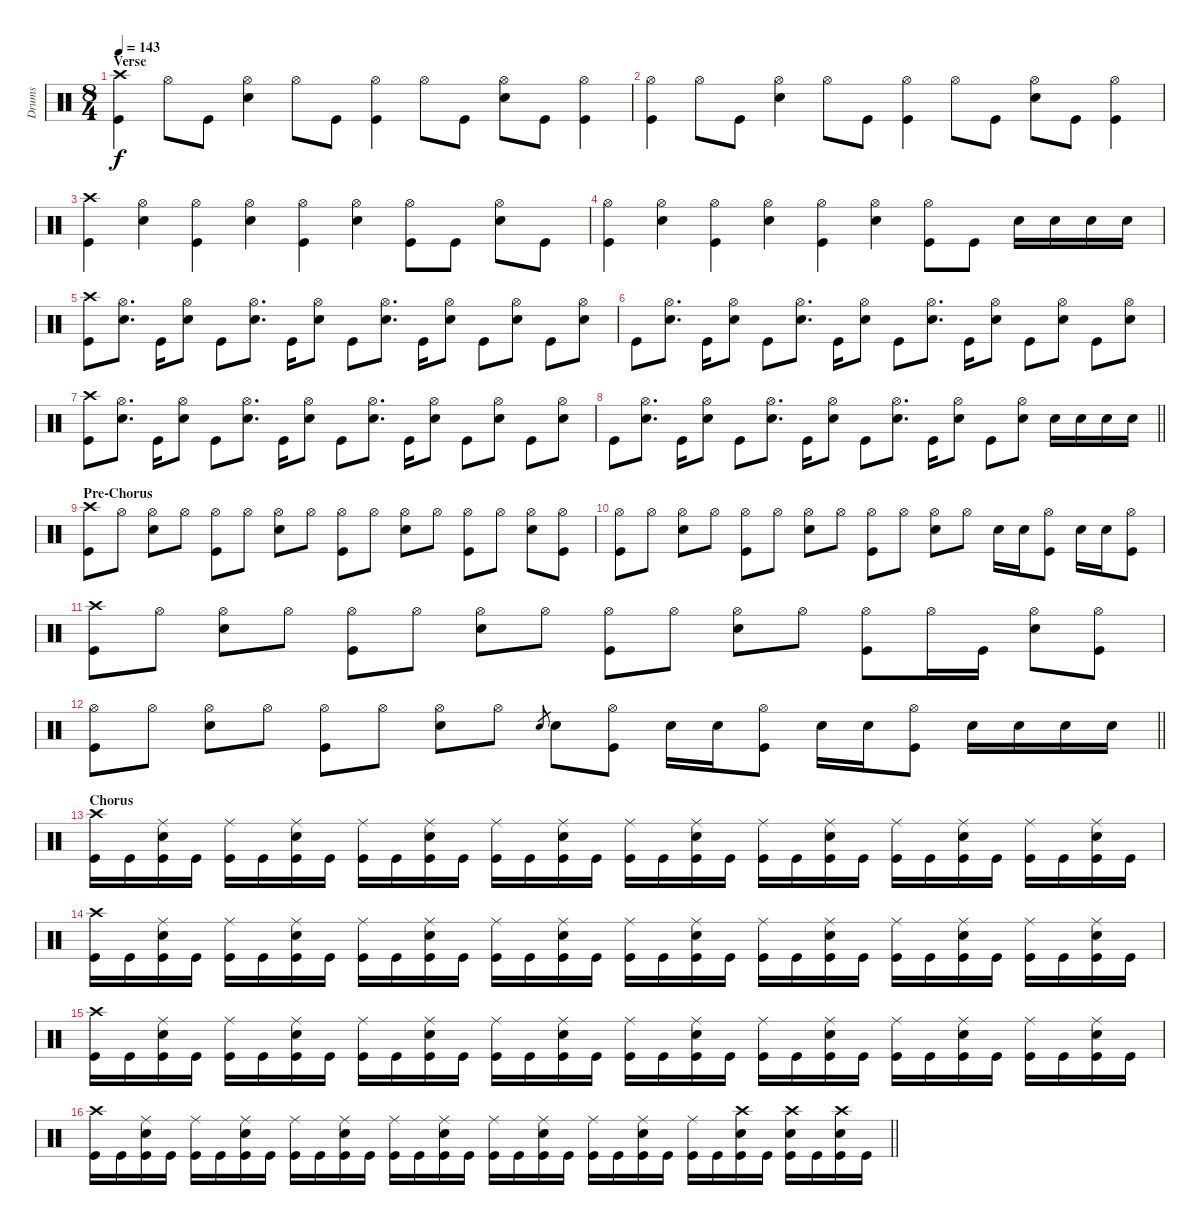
\track ("Drums" "Drums") {instrument percussion}
\staff {score}
\articulation defaults
\ts (8 4)
\section ("" "Verse")
\tempo 143
\clef neutral
\ks c
("Crash high (hit)" "Kick (hit)").4{dy f} "Hi-Hat (open)".8 "Kick (hit)".8 ("Hi-Hat (open)" "Snare (hit) 2").4 "Hi-Hat (open)".8 "Kick (hit)".8 ("Hi-Hat (open)" "Kick (hit)").4 "Hi-Hat (open)".8 "Kick (hit)".8 ("Hi-Hat (open)" "Snare (hit) 2").8 "Kick (hit)".8 ("Hi-Hat (open)" "Kick (hit)").4 |
("Hi-Hat (open)" "Kick (hit)").4 "Hi-Hat (open)".8 "Kick (hit)".8 ("Hi-Hat (open)" "Snare (hit) 2").4 "Hi-Hat (open)".8 "Kick (hit)".8 ("Hi-Hat (open)" "Kick (hit)").4 "Hi-Hat (open)".8 "Kick (hit)".8 ("Hi-Hat (open)" "Snare (hit) 2").8 "Kick (hit)".8 ("Hi-Hat (open)" "Kick (hit)").4 |
("Crash high (hit)" "Kick (hit)").4 ("Hi-Hat (open)" "Snare (hit) 2").4 ("Hi-Hat (open)" "Kick (hit)").4 ("Hi-Hat (open)" "Snare (hit) 2").4 ("Hi-Hat (open)" "Kick (hit)").4 ("Hi-Hat (open)" "Snare (hit) 2").4 ("Hi-Hat (open)" "Kick (hit)").8 "Kick (hit)".8 ("Hi-Hat (open)" "Snare (hit) 2").8 "Kick (hit)".8 |
("Hi-Hat (open)" "Kick (hit)").4 ("Hi-Hat (open)" "Snare (hit) 2").4 ("Hi-Hat (open)" "Kick (hit)").4 ("Hi-Hat (open)" "Snare (hit) 2").4 ("Hi-Hat (open)" "Kick (hit)").4 ("Hi-Hat (open)" "Snare (hit) 2").4 ("Hi-Hat (open)" "Kick (hit)").8 "Kick (hit)".8 "Snare (hit) 2".16 "Snare (hit) 2".16 "Snare (hit) 2".16 "Snare (hit) 2".16 |
("Crash high (hit)" "Kick (hit)").8 ("Hi-Hat (open)" "Snare (hit) 2").8{d} "Kick (hit)".16 ("Hi-Hat (open)" "Snare (hit) 2").8 "Kick (hit)".8 ("Hi-Hat (open)" "Snare (hit) 2").8{d} "Kick (hit)".16 ("Hi-Hat (open)" "Snare (hit) 2").8 "Kick (hit)".8 ("Hi-Hat (open)" "Snare (hit) 2").8{d} "Kick (hit)".16 ("Hi-Hat (open)" "Snare (hit) 2").8 "Kick (hit)".8 ("Hi-Hat (open)" "Snare (hit) 2").8 "Kick (hit)".8 ("Hi-Hat (open)" "Snare (hit) 2").8 |
"Kick (hit)".8 ("Hi-Hat (open)" "Snare (hit) 2").8{d} "Kick (hit)".16 ("Hi-Hat (open)" "Snare (hit) 2").8 "Kick (hit)".8 ("Hi-Hat (open)" "Snare (hit) 2").8{d} "Kick (hit)".16 ("Hi-Hat (open)" "Snare (hit) 2").8 "Kick (hit)".8 ("Hi-Hat (open)" "Snare (hit) 2").8{d} "Kick (hit)".16 ("Hi-Hat (open)" "Snare (hit) 2").8 "Kick (hit)".8 ("Hi-Hat (open)" "Snare (hit) 2").8 "Kick (hit)".8 ("Hi-Hat (open)" "Snare (hit) 2").8 |
("Crash high (hit)" "Kick (hit)").8 ("Hi-Hat (open)" "Snare (hit) 2").8{d} "Kick (hit)".16 ("Hi-Hat (open)" "Snare (hit) 2").8 "Kick (hit)".8 ("Hi-Hat (open)" "Snare (hit) 2").8{d} "Kick (hit)".16 ("Hi-Hat (open)" "Snare (hit) 2").8 "Kick (hit)".8 ("Hi-Hat (open)" "Snare (hit) 2").8{d} "Kick (hit)".16 ("Hi-Hat (open)" "Snare (hit) 2").8 "Kick (hit)".8 ("Hi-Hat (open)" "Snare (hit) 2").8 "Kick (hit)".8 ("Hi-Hat (open)" "Snare (hit) 2").8 |
\barLineRight lightlight "Kick (hit)".8
("Hi-Hat (open)" "Snare (hit) 2").8{d} "Kick (hit)".16 ("Hi-Hat (open)" "Snare (hit) 2").8 "Kick (hit)".8 ("Hi-Hat (open)" "Snare (hit) 2").8{d} "Kick (hit)".16 ("Hi-Hat (open)" "Snare (hit) 2").8 "Kick (hit)".8 ("Hi-Hat (open)" "Snare (hit) 2").8{d} "Kick (hit)".16 ("Hi-Hat (open)" "Snare (hit) 2").8 "Kick (hit)".8 ("Hi-Hat (open)" "Snare (hit) 2").8 "Snare (hit) 2".16 "Snare (hit) 2".16 "Snare (hit) 2".16 "Snare (hit) 2".16 |
\section ("" "Pre-Chorus")
("Crash high (hit)" "Kick (hit)").8 "Hi-Hat (open)".8 ("Hi-Hat (open)" "Snare (hit) 2").8 "Hi-Hat (open)".8 ("Hi-Hat (open)" "Kick (hit)").8 "Hi-Hat (open)".8 ("Hi-Hat (open)" "Snare (hit) 2").8 "Hi-Hat (open)".8 ("Hi-Hat (open)" "Kick (hit)").8 "Hi-Hat (open)".8 ("Hi-Hat (open)" "Snare (hit) 2").8 "Hi-Hat (open)".8 ("Hi-Hat (open)" "Kick (hit)").8 "Hi-Hat (open)".8 ("Hi-Hat (open)" "Snare (hit) 2").8 ("Hi-Hat (open)" "Kick (hit)").8 |
("Hi-Hat (open)" "Kick (hit)").8 "Hi-Hat (open)".8 ("Hi-Hat (open)" "Snare (hit) 2").8 "Hi-Hat (open)".8 ("Hi-Hat (open)" "Kick (hit)").8 "Hi-Hat (open)".8 ("Hi-Hat (open)" "Snare (hit) 2").8 "Hi-Hat (open)".8 ("Hi-Hat (open)" "Kick (hit)").8 "Hi-Hat (open)".8 ("Hi-Hat (open)" "Snare (hit) 2").8 "Hi-Hat (open)".8 "Snare (hit) 2".16 "Snare (hit) 2".16 ("Hi-Hat (open)" "Kick (hit)").8 "Snare (hit) 2".16 "Snare (hit) 2".16 ("Hi-Hat (open)" "Kick (hit)").8 |
("Crash high (hit)" "Kick (hit)").8 "Hi-Hat (open)".8 ("Hi-Hat (open)" "Snare (hit) 2").8 "Hi-Hat (open)".8 ("Hi-Hat (open)" "Kick (hit)").8 "Hi-Hat (open)".8 ("Hi-Hat (open)" "Snare (hit) 2").8 "Hi-Hat (open)".8 ("Hi-Hat (open)" "Kick (hit)").8 "Hi-Hat (open)".8 ("Hi-Hat (open)" "Snare (hit) 2").8 "Hi-Hat (open)".8 ("Hi-Hat (open)" "Kick (hit)").8 "Hi-Hat (open)".16 "Kick (hit)".16 ("Hi-Hat (open)" "Snare (hit) 2").8 ("Hi-Hat (open)" "Kick (hit)").8 |
\barLineRight lightlight
("Hi-Hat (open)" "Kick (hit)").8 "Hi-Hat (open)".8 ("Hi-Hat (open)" "Snare (hit) 2").8 "Hi-Hat (open)".8 ("Hi-Hat (open)" "Kick (hit)").8 "Hi-Hat (open)".8 ("Hi-Hat (open)" "Snare (hit) 2").8 "Hi-Hat (open)".8 "Snare (hit) 2".8{gr} "Snare (hit) 2".8 ("Hi-Hat (open)" "Kick (hit)").8 "Snare (hit) 2".16 "Snare (hit) 2".16 ("Hi-Hat (open)" "Kick (hit)").8 "Snare (hit) 2".16 "Snare (hit) 2".16 ("Hi-Hat (open)" "Kick (hit)").8 "Snare (hit) 2".16 "Snare (hit) 2".16 "Snare (hit) 2".16 "Snare (hit) 2".16 |
\section ("" "Chorus")
("Crash high (hit)" "Kick (hit)").16 "Kick (hit)".16 ("Ride (middle)" "Snare (hit) 2" "Kick (hit)").16 "Kick (hit)".16 ("Ride (middle)" "Kick (hit)").16 "Kick (hit)".16 ("Ride (middle)" "Snare (hit) 2" "Kick (hit)").16 "Kick (hit)".16 ("Ride (middle)" "Kick (hit)").16 "Kick (hit)".16 ("Ride (middle)" "Snare (hit) 2" "Kick (hit)").16 "Kick (hit)".16 ("Ride (middle)" "Kick (hit)").16 "Kick (hit)".16 ("Ride (middle)" "Snare (hit) 2" "Kick (hit)").16 "Kick (hit)".16 ("Ride (middle)" "Kick (hit)").16 "Kick (hit)".16 ("Ride (middle)" "Snare (hit) 2" "Kick (hit)").16 "Kick (hit)".16 ("Ride (middle)" "Kick (hit)").16 "Kick (hit)".16 ("Ride (middle)" "Snare (hit) 2" "Kick (hit)").16 "Kick (hit)".16 ("Ride (middle)" "Kick (hit)").16 "Kick (hit)".16 ("Ride (middle)" "Snare (hit) 2" "Kick (hit)").16 "Kick (hit)".16 ("Ride (middle)" "Kick (hit)").16 "Kick (hit)".16 ("Ride (middle)" "Snare (hit) 2" "Kick (hit)").16 "Kick (hit)".16 |
("Crash high (hit)" "Kick (hit)").16 "Kick (hit)".16 ("Ride (middle)" "Snare (hit) 2" "Kick (hit)").16 "Kick (hit)".16 ("Ride (middle)" "Kick (hit)").16 "Kick (hit)".16 ("Ride (middle)" "Snare (hit) 2" "Kick (hit)").16 "Kick (hit)".16 ("Ride (middle)" "Kick (hit)").16 "Kick (hit)".16 ("Ride (middle)" "Snare (hit) 2" "Kick (hit)").16 "Kick (hit)".16 ("Ride (middle)" "Kick (hit)").16 "Kick (hit)".16 ("Ride (middle)" "Snare (hit) 2" "Kick (hit)").16 "Kick (hit)".16 ("Ride (middle)" "Kick (hit)").16 "Kick (hit)".16 ("Ride (middle)" "Snare (hit) 2" "Kick (hit)").16 "Kick (hit)".16 ("Ride (middle)" "Kick (hit)").16 "Kick (hit)".16 ("Ride (middle)" "Snare (hit) 2" "Kick (hit)").16 "Kick (hit)".16 ("Ride (middle)" "Kick (hit)").16 "Kick (hit)".16 ("Ride (middle)" "Snare (hit) 2" "Kick (hit)").16 "Kick (hit)".16 ("Ride (middle)" "Kick (hit)").16 "Kick (hit)".16 ("Ride (middle)" "Snare (hit) 2" "Kick (hit)").16 "Kick (hit)".16 |
("Crash high (hit)" "Kick (hit)").16 "Kick (hit)".16 ("Ride (middle)" "Snare (hit) 2" "Kick (hit)").16 "Kick (hit)".16 ("Ride (middle)" "Kick (hit)").16 "Kick (hit)".16 ("Ride (middle)" "Snare (hit) 2" "Kick (hit)").16 "Kick (hit)".16 ("Ride (middle)" "Kick (hit)").16 "Kick (hit)".16 ("Ride (middle)" "Snare (hit) 2" "Kick (hit)").16 "Kick (hit)".16 ("Ride (middle)" "Kick (hit)").16 "Kick (hit)".16 ("Ride (middle)" "Snare (hit) 2" "Kick (hit)").16 "Kick (hit)".16 ("Ride (middle)" "Kick (hit)").16 "Kick (hit)".16 ("Ride (middle)" "Snare (hit) 2" "Kick (hit)").16 "Kick (hit)".16 ("Ride (middle)" "Kick (hit)").16 "Kick (hit)".16 ("Ride (middle)" "Snare (hit) 2" "Kick (hit)").16 "Kick (hit)".16 ("Ride (middle)" "Kick (hit)").16 "Kick (hit)".16 ("Ride (middle)" "Snare (hit) 2" "Kick (hit)").16 "Kick (hit)".16 ("Ride (middle)" "Kick (hit)").16 "Kick (hit)".16 ("Ride (middle)" "Snare (hit) 2" "Kick (hit)").16 "Kick (hit)".16 |
\barLineRight lightlight
("Crash high (hit)" "Kick (hit)").16 "Kick (hit)".16 ("Ride (middle)" "Snare (hit) 2" "Kick (hit)").16 "Kick (hit)".16 ("Ride (middle)" "Kick (hit)").16 "Kick (hit)".16 ("Ride (middle)" "Snare (hit) 2" "Kick (hit)").16 "Kick (hit)".16 ("Ride (middle)" "Kick (hit)").16 "Kick (hit)".16 ("Ride (middle)" "Snare (hit) 2" "Kick (hit)").16 "Kick (hit)".16 ("Ride (middle)" "Kick (hit)").16 "Kick (hit)".16 ("Ride (middle)" "Snare (hit) 2" "Kick (hit)").16 "Kick (hit)".16 ("Ride (middle)" "Kick (hit)").16 "Kick (hit)".16 ("Ride (middle)" "Snare (hit) 2" "Kick (hit)").16 "Kick (hit)".16 ("Ride (middle)" "Kick (hit)").16 "Kick (hit)".16 ("Ride (middle)" "Snare (hit) 2" "Kick (hit)").16 "Kick (hit)".16 ("Ride (middle)" "Kick (hit)").16 "Kick (hit)".16 ("Crash high (hit)" "Snare (hit) 2" "Kick (hit)").16 "Kick (hit)".16 ("Crash high (hit)" "Snare (hit) 2" "Kick (hit)").16 "Kick (hit)".16 ("Crash high (hit)" "Snare (hit) 2" "Kick (hit)").16 "Kick (hit)".16
